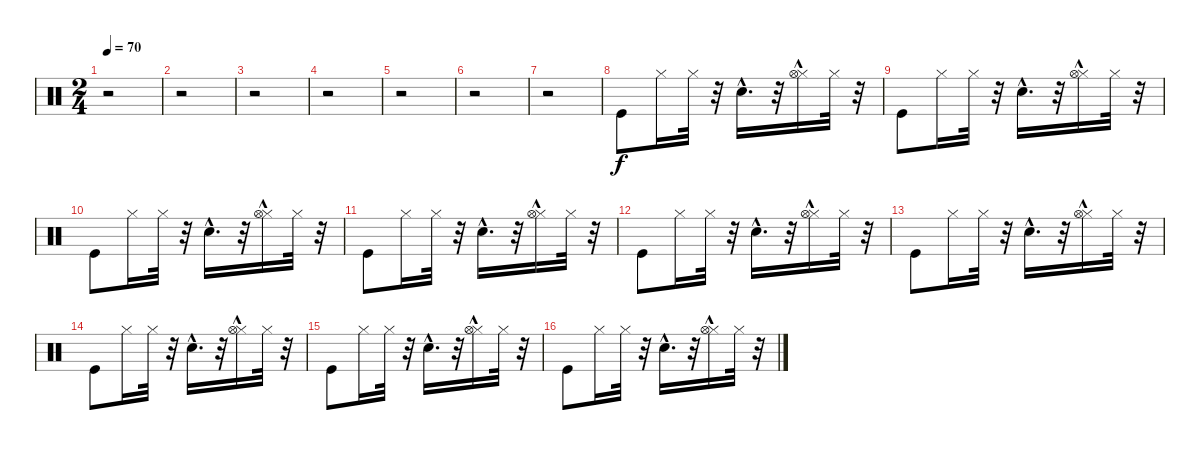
\track "" {instrument percussion}
\staff {score}
\articulation defaults
\ts (2 4)
\tempo 70
\clef neutral
\ks c
r.2{dy f} |
r.2 |
r.2 |
r.2 |
r.2 |
r.2 |
r.2 |
"Kick (hit)".8 "Hi-Hat (closed)".16 "Hi-Hat (closed)".32 r.32 "Electric Snare (hit)"{hac}.16{d} r.32 ("Hi-Hat (closed)" "Hi-Hat (open)"{hac}).16 "Hi-Hat (closed)".32 r.32 |
"Kick (hit)".8 "Hi-Hat (closed)".16 "Hi-Hat (closed)".32 r.32 "Electric Snare (hit)"{hac}.16{d} r.32 ("Hi-Hat (closed)" "Hi-Hat (open)"{hac}).16 "Hi-Hat (closed)".32 r.32 |
"Kick (hit)".8 "Hi-Hat (closed)".16 "Hi-Hat (closed)".32 r.32 "Electric Snare (hit)"{hac}.16{d} r.32 ("Hi-Hat (closed)" "Hi-Hat (open)"{hac}).16 "Hi-Hat (closed)".32 r.32 |
"Kick (hit)".8 "Hi-Hat (closed)".16 "Hi-Hat (closed)".32 r.32 "Electric Snare (hit)"{hac}.16{d} r.32 ("Hi-Hat (closed)" "Hi-Hat (open)"{hac}).16 "Hi-Hat (closed)".32 r.32 |
"Kick (hit)".8 "Hi-Hat (closed)".16 "Hi-Hat (closed)".32 r.32 "Electric Snare (hit)"{hac}.16{d} r.32 ("Hi-Hat (closed)" "Hi-Hat (open)"{hac}).16 "Hi-Hat (closed)".32 r.32 |
"Kick (hit)".8 "Hi-Hat (closed)".16 "Hi-Hat (closed)".32 r.32 "Electric Snare (hit)"{hac}.16{d} r.32 ("Hi-Hat (closed)" "Hi-Hat (open)"{hac}).16 "Hi-Hat (closed)".32 r.32 |
"Kick (hit)".8 "Hi-Hat (closed)".16 "Hi-Hat (closed)".32 r.32 "Electric Snare (hit)"{hac}.16{d} r.32 ("Hi-Hat (closed)" "Hi-Hat (open)"{hac}).16 "Hi-Hat (closed)".32 r.32 |
"Kick (hit)".8 "Hi-Hat (closed)".16 "Hi-Hat (closed)".32 r.32 "Electric Snare (hit)"{hac}.16{d} r.32 ("Hi-Hat (closed)" "Hi-Hat (open)"{hac}).16 "Hi-Hat (closed)".32 r.32 |
"Kick (hit)".8 "Hi-Hat (closed)".16 "Hi-Hat (closed)".32 r.32 "Electric Snare (hit)"{hac}.16{d} r.32 ("Hi-Hat (closed)" "Hi-Hat (open)"{hac}).16 "Hi-Hat (closed)".32 r.32
